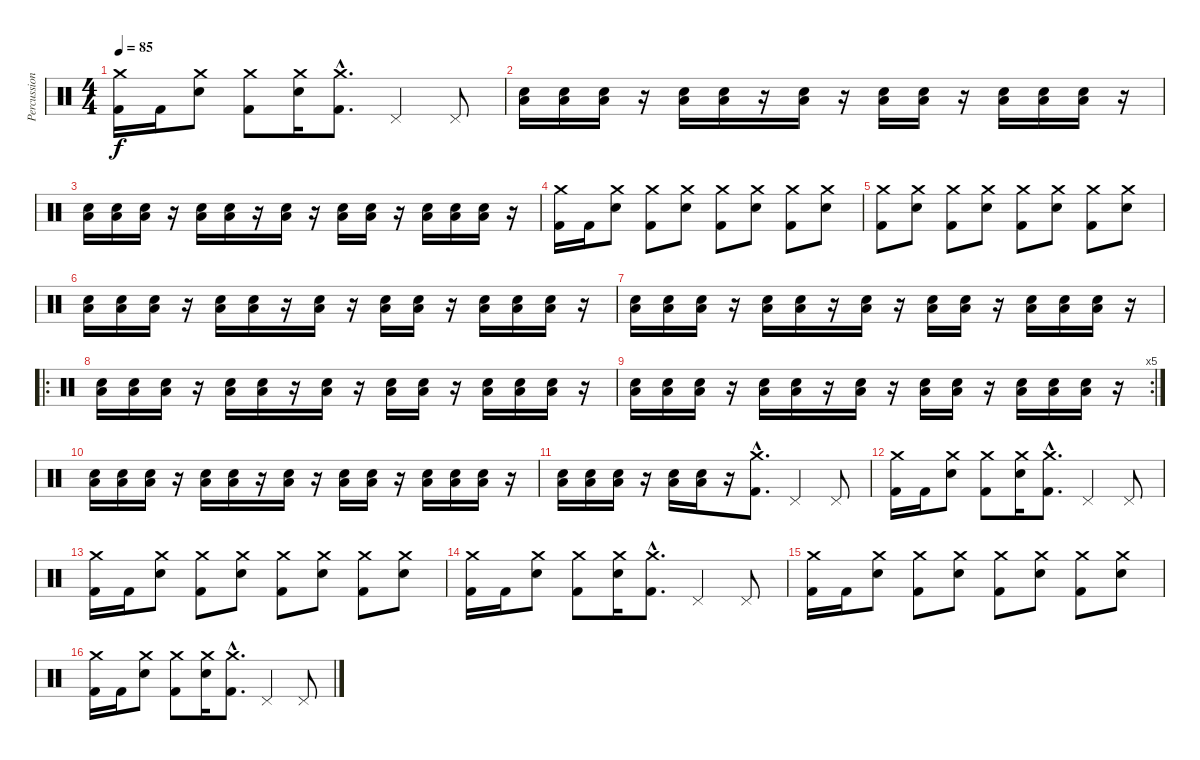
\track ("Percussion" "Percussion") {instrument percussion}
\staff {score}
\articulation defaults
\ts (4 4)
\tempo 85
\clef neutral
\ks c
("Crash medium (hit)" "Kick (hit) 2").16{dy f} "Kick (hit) 2".16 ("Crash medium (hit)" "Electric Snare (hit)").8 ("Crash medium (hit)" "Kick (hit) 2").8 ("Crash medium (hit)" "Electric Snare (hit)").16 ("Crash medium (hit)"{hac} "Kick (hit) 2"{hac}).8{d} "Pedal Hi-Hat (hit)".4 "Pedal Hi-Hat (hit)".8 |
("Low Floor Tom (hit)" "Electric Snare (hit)").16 ("Low Floor Tom (hit)" "Electric Snare (hit)").16 ("Low Floor Tom (hit)" "Electric Snare (hit)").16 r.16 ("Low Floor Tom (hit)" "Electric Snare (hit)").16 ("Low Floor Tom (hit)" "Electric Snare (hit)").16 r.16 ("Low Floor Tom (hit)" "Electric Snare (hit)").16 r.16 ("Low Floor Tom (hit)" "Electric Snare (hit)").16 ("Low Floor Tom (hit)" "Electric Snare (hit)").16 r.16 ("Low Floor Tom (hit)" "Electric Snare (hit)").16 ("Low Floor Tom (hit)" "Electric Snare (hit)").16 ("Low Floor Tom (hit)" "Electric Snare (hit)").16 r.16 |
("Low Floor Tom (hit)" "Electric Snare (hit)").16 ("Low Floor Tom (hit)" "Electric Snare (hit)").16 ("Low Floor Tom (hit)" "Electric Snare (hit)").16 r.16 ("Low Floor Tom (hit)" "Electric Snare (hit)").16 ("Low Floor Tom (hit)" "Electric Snare (hit)").16 r.16 ("Low Floor Tom (hit)" "Electric Snare (hit)").16 r.16 ("Low Floor Tom (hit)" "Electric Snare (hit)").16 ("Low Floor Tom (hit)" "Electric Snare (hit)").16 r.16 ("Low Floor Tom (hit)" "Electric Snare (hit)").16 ("Low Floor Tom (hit)" "Electric Snare (hit)").16 ("Low Floor Tom (hit)" "Electric Snare (hit)").16 r.16 |
("Crash medium (hit)" "Kick (hit) 2").16 "Kick (hit) 2".16 ("Crash medium (hit)" "Electric Snare (hit)").8 ("Crash medium (hit)" "Kick (hit) 2").8 ("Crash medium (hit)" "Electric Snare (hit)").8 ("Crash medium (hit)" "Kick (hit) 2").8 ("Crash medium (hit)" "Electric Snare (hit)").8 ("Crash medium (hit)" "Kick (hit) 2").8 ("Crash medium (hit)" "Electric Snare (hit)").8 |
("Crash medium (hit)" "Kick (hit) 2").8 ("Crash medium (hit)" "Electric Snare (hit)").8 ("Crash medium (hit)" "Kick (hit) 2").8 ("Crash medium (hit)" "Electric Snare (hit)").8 ("Crash medium (hit)" "Kick (hit) 2").8 ("Crash medium (hit)" "Electric Snare (hit)").8 ("Crash medium (hit)" "Kick (hit) 2").8 ("Crash medium (hit)" "Electric Snare (hit)").8 |
("Low Floor Tom (hit)" "Electric Snare (hit)").16 ("Low Floor Tom (hit)" "Electric Snare (hit)").16 ("Low Floor Tom (hit)" "Electric Snare (hit)").16 r.16 ("Low Floor Tom (hit)" "Electric Snare (hit)").16 ("Low Floor Tom (hit)" "Electric Snare (hit)").16 r.16 ("Low Floor Tom (hit)" "Electric Snare (hit)").16 r.16 ("Low Floor Tom (hit)" "Electric Snare (hit)").16 ("Low Floor Tom (hit)" "Electric Snare (hit)").16 r.16 ("Low Floor Tom (hit)" "Electric Snare (hit)").16 ("Low Floor Tom (hit)" "Electric Snare (hit)").16 ("Low Floor Tom (hit)" "Electric Snare (hit)").16 r.16 |
("Low Floor Tom (hit)" "Electric Snare (hit)").16 ("Low Floor Tom (hit)" "Electric Snare (hit)").16 ("Low Floor Tom (hit)" "Electric Snare (hit)").16 r.16 ("Low Floor Tom (hit)" "Electric Snare (hit)").16 ("Low Floor Tom (hit)" "Electric Snare (hit)").16 r.16 ("Low Floor Tom (hit)" "Electric Snare (hit)").16 r.16 ("Low Floor Tom (hit)" "Electric Snare (hit)").16 ("Low Floor Tom (hit)" "Electric Snare (hit)").16 r.16 ("Low Floor Tom (hit)" "Electric Snare (hit)").16 ("Low Floor Tom (hit)" "Electric Snare (hit)").16 ("Low Floor Tom (hit)" "Electric Snare (hit)").16 r.16 |
\ro
("Low Floor Tom (hit)" "Electric Snare (hit)").16 ("Low Floor Tom (hit)" "Electric Snare (hit)").16 ("Low Floor Tom (hit)" "Electric Snare (hit)").16 r.16 ("Low Floor Tom (hit)" "Electric Snare (hit)").16 ("Low Floor Tom (hit)" "Electric Snare (hit)").16 r.16 ("Low Floor Tom (hit)" "Electric Snare (hit)").16 r.16 ("Low Floor Tom (hit)" "Electric Snare (hit)").16 ("Low Floor Tom (hit)" "Electric Snare (hit)").16 r.16 ("Low Floor Tom (hit)" "Electric Snare (hit)").16 ("Low Floor Tom (hit)" "Electric Snare (hit)").16 ("Low Floor Tom (hit)" "Electric Snare (hit)").16 r.16 |
\rc 5
("Low Floor Tom (hit)" "Electric Snare (hit)").16 ("Low Floor Tom (hit)" "Electric Snare (hit)").16 ("Low Floor Tom (hit)" "Electric Snare (hit)").16 r.16 ("Low Floor Tom (hit)" "Electric Snare (hit)").16 ("Low Floor Tom (hit)" "Electric Snare (hit)").16 r.16 ("Low Floor Tom (hit)" "Electric Snare (hit)").16 r.16 ("Low Floor Tom (hit)" "Electric Snare (hit)").16 ("Low Floor Tom (hit)" "Electric Snare (hit)").16 r.16 ("Low Floor Tom (hit)" "Electric Snare (hit)").16 ("Low Floor Tom (hit)" "Electric Snare (hit)").16 ("Low Floor Tom (hit)" "Electric Snare (hit)").16 r.16 |
("Low Floor Tom (hit)" "Electric Snare (hit)").16 ("Low Floor Tom (hit)" "Electric Snare (hit)").16 ("Low Floor Tom (hit)" "Electric Snare (hit)").16 r.16 ("Low Floor Tom (hit)" "Electric Snare (hit)").16 ("Low Floor Tom (hit)" "Electric Snare (hit)").16 r.16 ("Low Floor Tom (hit)" "Electric Snare (hit)").16 r.16 ("Low Floor Tom (hit)" "Electric Snare (hit)").16 ("Low Floor Tom (hit)" "Electric Snare (hit)").16 r.16 ("Low Floor Tom (hit)" "Electric Snare (hit)").16 ("Low Floor Tom (hit)" "Electric Snare (hit)").16 ("Low Floor Tom (hit)" "Electric Snare (hit)").16 r.16 |
("Low Floor Tom (hit)" "Electric Snare (hit)").16 ("Low Floor Tom (hit)" "Electric Snare (hit)").16 ("Low Floor Tom (hit)" "Electric Snare (hit)").16 r.16 ("Low Floor Tom (hit)" "Electric Snare (hit)").16 ("Low Floor Tom (hit)" "Electric Snare (hit)").16 r.16 ("Crash medium (hit)"{hac} "Kick (hit) 2"{hac}).8{d} "Pedal Hi-Hat (hit)".4 "Pedal Hi-Hat (hit)".8 |
("Crash medium (hit)" "Kick (hit) 2").16 "Kick (hit) 2".16 ("Crash medium (hit)" "Electric Snare (hit)").8 ("Crash medium (hit)" "Kick (hit) 2").8 ("Crash medium (hit)" "Electric Snare (hit)").16 ("Crash medium (hit)"{hac} "Kick (hit) 2"{hac}).8{d} "Pedal Hi-Hat (hit)".4 "Pedal Hi-Hat (hit)".8 |
("Crash medium (hit)" "Kick (hit) 2").16 "Kick (hit) 2".16 ("Crash medium (hit)" "Electric Snare (hit)").8 ("Crash medium (hit)" "Kick (hit) 2").8 ("Crash medium (hit)" "Electric Snare (hit)").8 ("Crash medium (hit)" "Kick (hit) 2").8 ("Crash medium (hit)" "Electric Snare (hit)").8 ("Crash medium (hit)" "Kick (hit) 2").8 ("Crash medium (hit)" "Electric Snare (hit)").8 |
("Crash medium (hit)" "Kick (hit) 2").16 "Kick (hit) 2".16 ("Crash medium (hit)" "Electric Snare (hit)").8 ("Crash medium (hit)" "Kick (hit) 2").8 ("Crash medium (hit)" "Electric Snare (hit)").16 ("Crash medium (hit)"{hac} "Kick (hit) 2"{hac}).8{d} "Pedal Hi-Hat (hit)".4 "Pedal Hi-Hat (hit)".8 |
("Crash medium (hit)" "Kick (hit) 2").16 "Kick (hit) 2".16 ("Crash medium (hit)" "Electric Snare (hit)").8 ("Crash medium (hit)" "Kick (hit) 2").8 ("Crash medium (hit)" "Electric Snare (hit)").8 ("Crash medium (hit)" "Kick (hit) 2").8 ("Crash medium (hit)" "Electric Snare (hit)").8 ("Crash medium (hit)" "Kick (hit) 2").8 ("Crash medium (hit)" "Electric Snare (hit)").8 |
("Crash medium (hit)" "Kick (hit) 2").16 "Kick (hit) 2".16 ("Crash medium (hit)" "Electric Snare (hit)").8 ("Crash medium (hit)" "Kick (hit) 2").8 ("Crash medium (hit)" "Electric Snare (hit)").16 ("Crash medium (hit)"{hac} "Kick (hit) 2"{hac}).8{d} "Pedal Hi-Hat (hit)".4 "Pedal Hi-Hat (hit)".8
